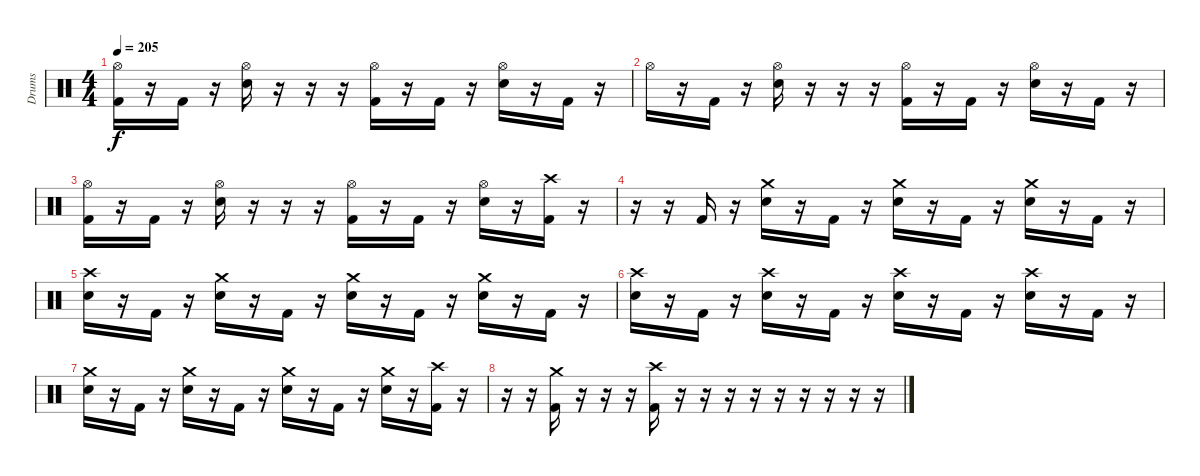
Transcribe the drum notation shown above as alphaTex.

\track ("Drums" "Drums") {instrument percussion}
\staff {score}
\articulation defaults
\ts (4 4)
\tempo 205
\clef neutral
\ks c
("Hi-Hat (open)" "Kick (hit) 2").16{dy f} r.16 "Kick (hit) 2".16 r.16 ("Hi-Hat (open)" "Electric Snare (hit)").16 r.16 r.16 r.16 ("Hi-Hat (open)" "Kick (hit) 2").16 r.16 "Kick (hit) 2".16 r.16 ("Hi-Hat (open)" "Electric Snare (hit)").16 r.16 "Kick (hit) 2".16 r.16 |
"Hi-Hat (open)".16 r.16 "Kick (hit) 2".16 r.16 ("Hi-Hat (open)" "Electric Snare (hit)").16 r.16 r.16 r.16 ("Hi-Hat (open)" "Kick (hit) 2").16 r.16 "Kick (hit) 2".16 r.16 ("Hi-Hat (open)" "Electric Snare (hit)").16 r.16 "Kick (hit) 2".16 r.16 |
("Hi-Hat (open)" "Kick (hit) 2").16 r.16 "Kick (hit) 2".16 r.16 ("Hi-Hat (open)" "Electric Snare (hit)").16 r.16 r.16 r.16 ("Hi-Hat (open)" "Kick (hit) 2").16 r.16 "Kick (hit) 2".16 r.16 ("Hi-Hat (open)" "Electric Snare (hit)").16 r.16 ("Crash high (hit)" "Kick (hit) 2").16 r.16 |
r.16 r.16 "Kick (hit) 2".16 r.16 ("Crash medium (hit)" "Electric Snare (hit)").16 r.16 "Kick (hit) 2".16 r.16 ("Crash medium (hit)" "Electric Snare (hit)").16 r.16 "Kick (hit) 2".16 r.16 ("Crash medium (hit)" "Electric Snare (hit)").16 r.16 "Kick (hit) 2".16 r.16 |
("Crash high (hit)" "Electric Snare (hit)").16 r.16 "Kick (hit) 2".16 r.16 ("Crash medium (hit)" "Electric Snare (hit)").16 r.16 "Kick (hit) 2".16 r.16 ("Crash medium (hit)" "Electric Snare (hit)").16 r.16 "Kick (hit) 2".16 r.16 ("Crash medium (hit)" "Electric Snare (hit)").16 r.16 "Kick (hit) 2".16 r.16 |
("Crash high (hit)" "Electric Snare (hit)").16 r.16 "Kick (hit) 2".16 r.16 ("Crash high (hit)" "Electric Snare (hit)").16 r.16 "Kick (hit) 2".16 r.16 ("Crash high (hit)" "Electric Snare (hit)").16 r.16 "Kick (hit) 2".16 r.16 ("Crash high (hit)" "Electric Snare (hit)").16 r.16 "Kick (hit) 2".16 r.16 |
("Crash medium (hit)" "Electric Snare (hit)").16 r.16 "Kick (hit) 2".16 r.16 ("Crash medium (hit)" "Electric Snare (hit)").16 r.16 "Kick (hit) 2".16 r.16 ("Crash medium (hit)" "Electric Snare (hit)").16 r.16 "Kick (hit) 2".16 r.16 ("Crash medium (hit)" "Electric Snare (hit)").16 r.16 ("Crash high (hit)" "Kick (hit) 2").16 r.16 |
r.16 r.16 ("Crash medium (hit)" "Kick (hit) 2").16 r.16 r.16 r.16 ("Crash high (hit)" "Kick (hit) 2").16 r.16 r.16 r.16 r.16 r.16 r.16 r.16 r.16 r.16
